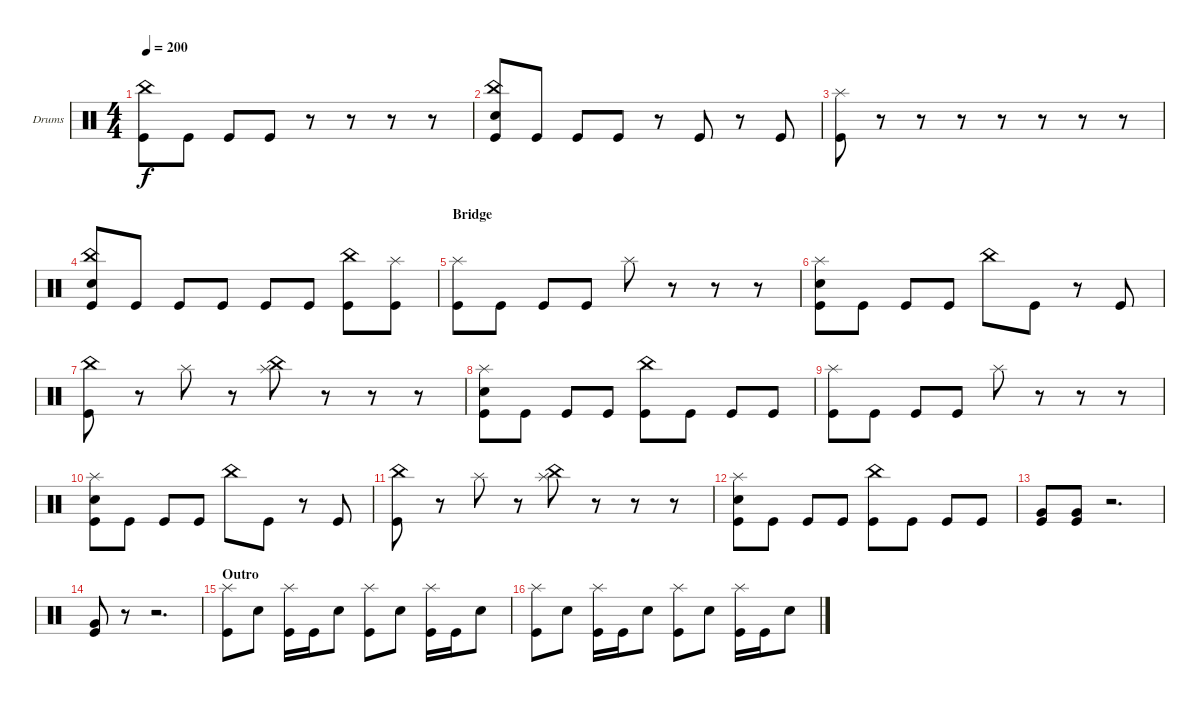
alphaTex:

\defaultSystemsLayout 4
\bracketExtendMode groupsimilarinstruments
\firstSystemTrackNameOrientation horizontal
\otherSystemsTrackNameOrientation horizontal
\track ("Drumkit" "Drums") {instrument percussion}
\staff {score}
\articulation defaults
\ts (4 4)
\tempo 200
\clef neutral
\ks c
("Kick (hit)" "China (hit)").8{dy f} "Kick (hit)".8 "Kick (hit)".8 "Kick (hit)".8 r.8 r.8 r.8 r.8 |
("Kick (hit)" "Snare (hit) 2" "China (hit)").8 "Kick (hit)".8 "Kick (hit)".8 "Kick (hit)".8 r.8 "Kick (hit)".8 r.8 "Kick (hit)".8 |
("Kick (hit)" "Splash (hit)").8 r.8 r.8 r.8 r.8 r.8 r.8 r.8 |
("Kick (hit)" "Snare (hit) 2" "China (hit)").8 "Kick (hit)".8 "Kick (hit)".8 "Kick (hit)".8 "Kick (hit)".8 "Kick (hit)".8 ("Kick (hit)" "China (hit)").8 ("Kick (hit)" "Splash (hit)").8 |
\section ("" "Bridge")
("Kick (hit)" "Splash (hit)").8 "Kick (hit)".8 "Kick (hit)".8 "Kick (hit)".8 "Splash (hit)".8 r.8 r.8 r.8 |
("Kick (hit)" "Splash (hit)" "Snare (hit) 2").8 "Kick (hit)".8 "Kick (hit)".8 "Kick (hit)".8 "China (hit)".8 "Kick (hit)".8 r.8 "Kick (hit)".8 |
("Kick (hit)" "China (hit)").8 r.8 "Splash (hit)".8 r.8 ("Splash (hit)" "China (hit)").8 r.8 r.8 r.8 |
("Kick (hit)" "Splash (hit)" "Snare (hit) 2").8 "Kick (hit)".8 "Kick (hit)".8 "Kick (hit)".8 ("Kick (hit)" "China (hit)").8 "Kick (hit)".8 "Kick (hit)".8 "Kick (hit)".8 |
("Kick (hit)" "Splash (hit)").8 "Kick (hit)".8 "Kick (hit)".8 "Kick (hit)".8 "Splash (hit)".8 r.8 r.8 r.8 |
("Kick (hit)" "Splash (hit)" "Snare (hit) 2").8 "Kick (hit)".8 "Kick (hit)".8 "Kick (hit)".8 "China (hit)".8 "Kick (hit)".8 r.8 "Kick (hit)".8 |
("Kick (hit)" "China (hit)").8 r.8 "Splash (hit)".8 r.8 ("Splash (hit)" "China (hit)").8 r.8 r.8 r.8 |
("Kick (hit)" "Splash (hit)" "Snare (hit) 2").8 "Kick (hit)".8 "Kick (hit)".8 "Kick (hit)".8 ("Kick (hit)" "China (hit)").8 "Kick (hit)".8 "Kick (hit)".8 "Kick (hit)".8 |
("Kick (hit)" "Very Low Tom (hit)").8 ("Kick (hit)" "Very Low Tom (hit)").8 r.2{d} |
("Kick (hit)" "Very Low Tom (hit)").8 r.8 r.2{d} |
\section ("" "Outro")
("Splash (hit)" "Kick (hit)").8 "Snare (hit) 2".8 ("Splash (hit)" "Kick (hit)").16 "Kick (hit)".16 "Snare (hit) 2".8 ("Splash (hit)" "Kick (hit)").8 "Snare (hit) 2".8 ("Splash (hit)" "Kick (hit)").16 "Kick (hit)".16 "Snare (hit) 2".8 |
("Splash (hit)" "Kick (hit)").8 "Snare (hit) 2".8 ("Splash (hit)" "Kick (hit)").16 "Kick (hit)".16 "Snare (hit) 2".8 ("Splash (hit)" "Kick (hit)").8 "Snare (hit) 2".8 ("Splash (hit)" "Kick (hit)").16 "Kick (hit)".16 "Snare (hit) 2".8
